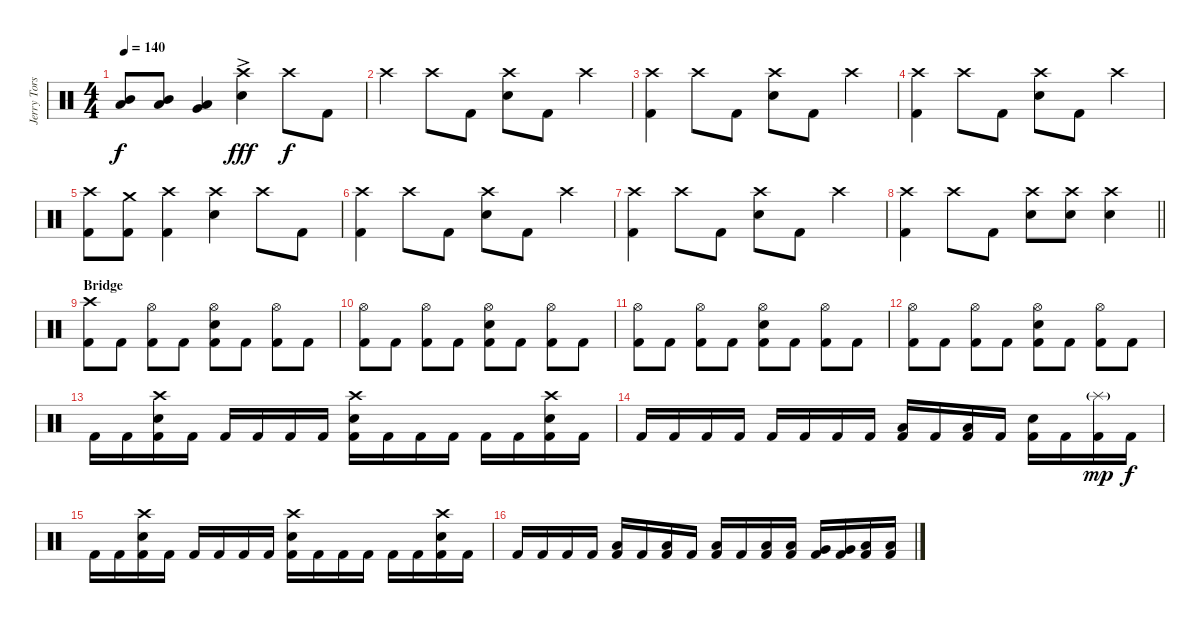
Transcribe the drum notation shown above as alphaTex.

\track ("Jerry Torstensson" "Jerry Tors") {instrument percussion}
\staff {score}
\articulation defaults
\ts (4 4)
\tempo 140
\clef neutral
\ks c
("Mid Tom (hit)" "Low Tom (hit)").8{dy f} ("Mid Tom (hit)" "Low Tom (hit)").8 ("Very Low Tom (hit)" "Low Tom (hit)").4 ("Crash high (hit)"{ac} "Snare (hit) 2").4{dy fff} "Crash high (hit)".8{dy f} "Kick (hit) 2".8 |
"Crash high (hit)".4 "Crash high (hit)".8 "Kick (hit) 2".8 ("Crash high (hit)" "Snare (hit) 2").8 "Kick (hit) 2".8 "Crash high (hit)".4 |
("Crash high (hit)" "Kick (hit) 2").4 "Crash high (hit)".8 "Kick (hit) 2".8 ("Crash high (hit)" "Snare (hit) 2").8 "Kick (hit) 2".8 "Crash high (hit)".4 |
("Crash high (hit)" "Kick (hit) 2").4 "Crash high (hit)".8 "Kick (hit) 2".8 ("Crash high (hit)" "Snare (hit) 2").8 "Kick (hit) 2".8 "Crash high (hit)".4 |
("Crash high (hit)" "Kick (hit) 2").8 ("Crash medium (hit)" "Kick (hit) 2").8 ("Crash high (hit)" "Kick (hit) 2").4 ("Crash high (hit)" "Snare (hit) 2").4 "Crash high (hit)".8 "Kick (hit) 2".8 |
("Crash high (hit)" "Kick (hit) 2").4 "Crash high (hit)".8 "Kick (hit) 2".8 ("Crash high (hit)" "Snare (hit) 2").8 "Kick (hit) 2".8 "Crash high (hit)".4 |
("Crash high (hit)" "Kick (hit) 2").4 "Crash high (hit)".8 "Kick (hit) 2".8 ("Crash high (hit)" "Snare (hit) 2").8 "Kick (hit) 2".8 "Crash high (hit)".4 |
\barLineRight lightlight
("Crash high (hit)" "Kick (hit) 2").4 "Crash high (hit)".8 "Kick (hit) 2".8 ("Crash high (hit)" "Snare (hit) 2").8 ("Crash high (hit)" "Snare (hit) 2").8 ("Crash high (hit)" "Snare (hit) 2").4 |
\section ("" "Bridge")
("Crash high (hit)" "Kick (hit) 2").8 "Kick (hit) 2".8 ("Hi-Hat (open)" "Kick (hit) 2").8 "Kick (hit) 2".8 ("Hi-Hat (open)" "Snare (hit) 2" "Kick (hit) 2").8 "Kick (hit) 2".8 ("Hi-Hat (open)" "Kick (hit) 2").8 "Kick (hit) 2".8 |
("Hi-Hat (open)" "Kick (hit) 2").8 "Kick (hit) 2".8 ("Hi-Hat (open)" "Kick (hit) 2").8 "Kick (hit) 2".8 ("Hi-Hat (open)" "Snare (hit) 2" "Kick (hit) 2").8 "Kick (hit) 2".8 ("Hi-Hat (open)" "Kick (hit) 2").8 "Kick (hit) 2".8 |
("Hi-Hat (open)" "Kick (hit) 2").8 "Kick (hit) 2".8 ("Hi-Hat (open)" "Kick (hit) 2").8 "Kick (hit) 2".8 ("Hi-Hat (open)" "Snare (hit) 2" "Kick (hit) 2").8 "Kick (hit) 2".8 ("Hi-Hat (open)" "Kick (hit) 2").8 "Kick (hit) 2".8 |
("Hi-Hat (open)" "Kick (hit) 2").8 "Kick (hit) 2".8 ("Hi-Hat (open)" "Kick (hit) 2").8 "Kick (hit) 2".8 ("Hi-Hat (open)" "Snare (hit) 2" "Kick (hit) 2").8 "Kick (hit) 2".8 ("Hi-Hat (open)" "Kick (hit) 2").8 "Kick (hit) 2".8 |
"Kick (hit) 2".16 "Kick (hit) 2".16 ("Crash high (hit)" "Snare (hit) 2" "Kick (hit) 2").16 "Kick (hit) 2".16 "Kick (hit) 2".16 "Kick (hit) 2".16 "Kick (hit) 2".16 "Kick (hit) 2".16 ("Crash high (hit)" "Snare (hit) 2" "Kick (hit) 2").16 "Kick (hit) 2".16 "Kick (hit) 2".16 "Kick (hit) 2".16 "Kick (hit) 2".16 "Kick (hit) 2".16 ("Crash high (hit)" "Snare (hit) 2" "Kick (hit) 2").16 "Kick (hit) 2".16 |
"Kick (hit) 2".16 "Kick (hit) 2".16 "Kick (hit) 2".16 "Kick (hit) 2".16 "Kick (hit) 2".16 "Kick (hit) 2".16 "Kick (hit) 2".16 "Kick (hit) 2".16 ("Low Tom (hit)" "Kick (hit) 2").16 "Kick (hit) 2".16 ("Low Tom (hit)" "Kick (hit) 2").16 "Kick (hit) 2".16 ("Snare (hit) 2" "Kick (hit) 2").16 "Kick (hit) 2".16 ("Splash (hit)"{g} "Kick (hit) 2").16{dy mp} "Kick (hit) 2".16{dy f} |
"Kick (hit) 2".16 "Kick (hit) 2".16 ("Crash high (hit)" "Snare (hit) 2" "Kick (hit) 2").16 "Kick (hit) 2".16 "Kick (hit) 2".16 "Kick (hit) 2".16 "Kick (hit) 2".16 "Kick (hit) 2".16 ("Crash high (hit)" "Snare (hit) 2" "Kick (hit) 2").16 "Kick (hit) 2".16 "Kick (hit) 2".16 "Kick (hit) 2".16 "Kick (hit) 2".16 "Kick (hit) 2".16 ("Crash high (hit)" "Snare (hit) 2" "Kick (hit) 2").16 "Kick (hit) 2".16 |
"Kick (hit) 2".16 "Kick (hit) 2".16 "Kick (hit) 2".16 "Kick (hit) 2".16 ("Low Tom (hit)" "Kick (hit) 2").16 "Kick (hit) 2".16 ("Low Tom (hit)" "Kick (hit) 2").16 "Kick (hit) 2".16 ("Low Tom (hit)" "Kick (hit) 2").16 "Kick (hit) 2".16 ("Low Tom (hit)" "Kick (hit) 2").16 ("Low Tom (hit)" "Kick (hit) 2").16 ("Very Low Tom (hit)" "Kick (hit) 2").16 ("Very Low Tom (hit)" "Kick (hit) 2").16 ("Low Floor Tom (hit)" "Kick (hit) 2").16 ("Low Floor Tom (hit)" "Kick (hit) 2").16
